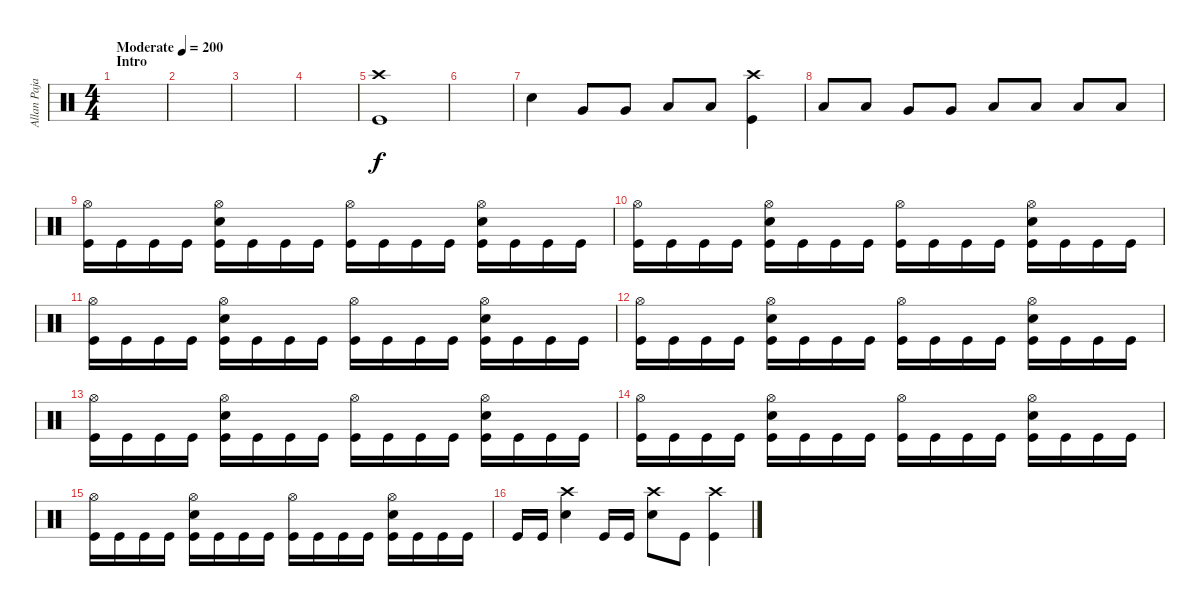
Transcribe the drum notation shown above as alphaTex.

\track ("Allan Pajarin (Drums)" "Allan Paja") {instrument percussion}
\staff {score}
\articulation defaults
\ts (4 4)
\section ("" "Intro")
\tempo (200 "Moderate")
\clef neutral
\ks c
|
|
|
|
("Kick (hit)" "Crash high (hit)").1 |
|
"Electric Snare (hit)".4 "Very Low Tom (hit)".8 "Very Low Tom (hit)".8 "Low Floor Tom (hit)".8 "Low Floor Tom (hit)".8 ("Crash high (hit)" "Kick (hit)").4 |
"Low Tom (hit)".8 "Low Tom (hit)".8 "Very Low Tom (hit)".8 "Very Low Tom (hit)".8 "Low Floor Tom (hit)".8 "Low Floor Tom (hit)".8 "Low Floor Tom (hit)".8 "Low Floor Tom (hit)".8 |
("Kick (hit)" "Hi-Hat (open)").16 "Kick (hit)".16 "Kick (hit)".16 "Kick (hit)".16 ("Hi-Hat (open)" "Electric Snare (hit)" "Kick (hit)").16 "Kick (hit)".16 "Kick (hit)".16 "Kick (hit)".16 ("Hi-Hat (open)" "Kick (hit)").16 "Kick (hit)".16 "Kick (hit)".16 "Kick (hit)".16 ("Hi-Hat (open)" "Electric Snare (hit)" "Kick (hit)").16 "Kick (hit)".16 "Kick (hit)".16 "Kick (hit)".16 |
("Kick (hit)" "Hi-Hat (open)").16 "Kick (hit)".16 "Kick (hit)".16 "Kick (hit)".16 ("Hi-Hat (open)" "Electric Snare (hit)" "Kick (hit)").16 "Kick (hit)".16 "Kick (hit)".16 "Kick (hit)".16 ("Hi-Hat (open)" "Kick (hit)").16 "Kick (hit)".16 "Kick (hit)".16 "Kick (hit)".16 ("Hi-Hat (open)" "Electric Snare (hit)" "Kick (hit)").16 "Kick (hit)".16 "Kick (hit)".16 "Kick (hit)".16 |
("Kick (hit)" "Hi-Hat (open)").16 "Kick (hit)".16 "Kick (hit)".16 "Kick (hit)".16 ("Hi-Hat (open)" "Electric Snare (hit)" "Kick (hit)").16 "Kick (hit)".16 "Kick (hit)".16 "Kick (hit)".16 ("Hi-Hat (open)" "Kick (hit)").16 "Kick (hit)".16 "Kick (hit)".16 "Kick (hit)".16 ("Hi-Hat (open)" "Electric Snare (hit)" "Kick (hit)").16 "Kick (hit)".16 "Kick (hit)".16 "Kick (hit)".16 |
("Kick (hit)" "Hi-Hat (open)").16 "Kick (hit)".16 "Kick (hit)".16 "Kick (hit)".16 ("Hi-Hat (open)" "Electric Snare (hit)" "Kick (hit)").16 "Kick (hit)".16 "Kick (hit)".16 "Kick (hit)".16 ("Hi-Hat (open)" "Kick (hit)").16 "Kick (hit)".16 "Kick (hit)".16 "Kick (hit)".16 ("Hi-Hat (open)" "Electric Snare (hit)" "Kick (hit)").16 "Kick (hit)".16 "Kick (hit)".16 "Kick (hit)".16 |
("Kick (hit)" "Hi-Hat (open)").16 "Kick (hit)".16 "Kick (hit)".16 "Kick (hit)".16 ("Hi-Hat (open)" "Electric Snare (hit)" "Kick (hit)").16 "Kick (hit)".16 "Kick (hit)".16 "Kick (hit)".16 ("Hi-Hat (open)" "Kick (hit)").16 "Kick (hit)".16 "Kick (hit)".16 "Kick (hit)".16 ("Hi-Hat (open)" "Electric Snare (hit)" "Kick (hit)").16 "Kick (hit)".16 "Kick (hit)".16 "Kick (hit)".16 |
("Kick (hit)" "Hi-Hat (open)").16 "Kick (hit)".16 "Kick (hit)".16 "Kick (hit)".16 ("Hi-Hat (open)" "Electric Snare (hit)" "Kick (hit)").16 "Kick (hit)".16 "Kick (hit)".16 "Kick (hit)".16 ("Hi-Hat (open)" "Kick (hit)").16 "Kick (hit)".16 "Kick (hit)".16 "Kick (hit)".16 ("Hi-Hat (open)" "Electric Snare (hit)" "Kick (hit)").16 "Kick (hit)".16 "Kick (hit)".16 "Kick (hit)".16 |
("Kick (hit)" "Hi-Hat (open)").16 "Kick (hit)".16 "Kick (hit)".16 "Kick (hit)".16 ("Hi-Hat (open)" "Electric Snare (hit)" "Kick (hit)").16 "Kick (hit)".16 "Kick (hit)".16 "Kick (hit)".16 ("Hi-Hat (open)" "Kick (hit)").16 "Kick (hit)".16 "Kick (hit)".16 "Kick (hit)".16 ("Hi-Hat (open)" "Electric Snare (hit)" "Kick (hit)").16 "Kick (hit)".16 "Kick (hit)".16 "Kick (hit)".16 |
"Kick (hit)".16 "Kick (hit)".16 ("Crash high (hit)" "Electric Snare (hit)").4 "Kick (hit)".16 "Kick (hit)".16 ("Crash high (hit)" "Electric Snare (hit)").8 "Kick (hit)".8 ("Crash high (hit)" "Kick (hit)").4
